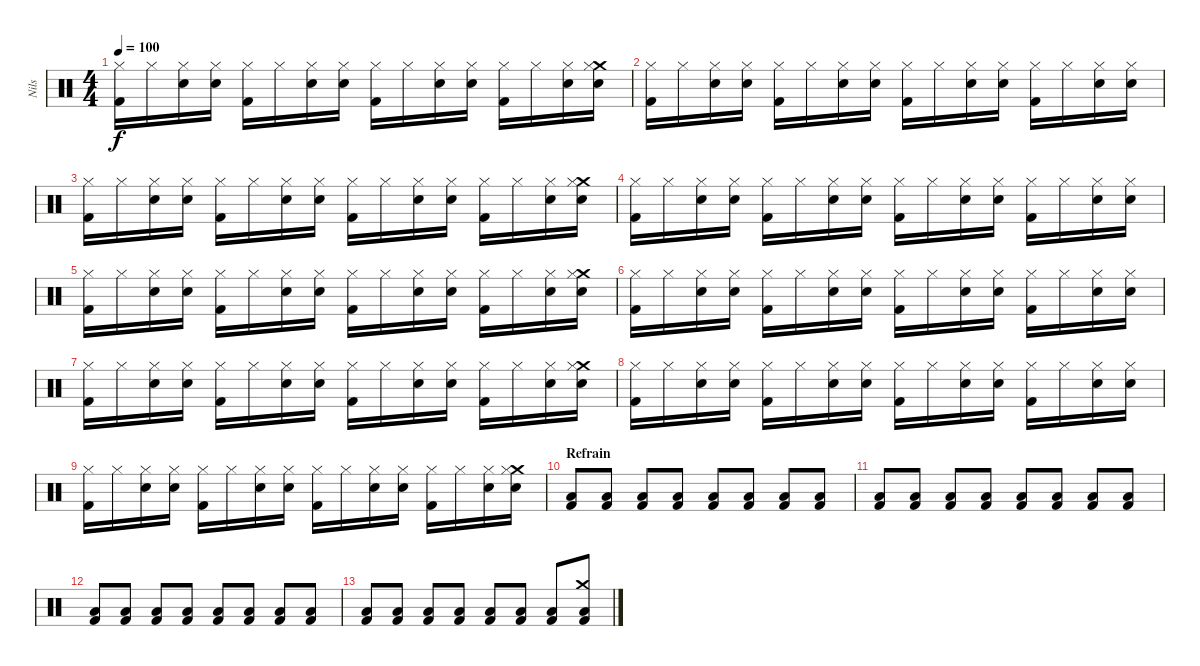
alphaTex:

\track ("Nils" "Nils") {instrument percussion}
\staff {score}
\articulation defaults
\ts (4 4)
\tempo 100
\clef neutral
\ks c
("Kick (hit) 2" "Hi-Hat (closed)").16{dy f} "Hi-Hat (closed)".16 ("Electric Snare (hit)" "Hi-Hat (closed)").16 ("Electric Snare (hit)" "Hi-Hat (closed)").16 ("Kick (hit) 2" "Hi-Hat (closed)").16 "Hi-Hat (closed)".16 ("Electric Snare (hit)" "Hi-Hat (closed)").16 ("Electric Snare (hit)" "Hi-Hat (closed)").16 ("Kick (hit) 2" "Hi-Hat (closed)").16 "Hi-Hat (closed)".16 ("Electric Snare (hit)" "Hi-Hat (closed)").16 ("Electric Snare (hit)" "Hi-Hat (closed)").16 ("Kick (hit) 2" "Hi-Hat (closed)").16 "Hi-Hat (closed)".16 ("Electric Snare (hit)" "Hi-Hat (closed)").16 ("Crash medium (hit)" "Electric Snare (hit)" "Hi-Hat (closed)").16 |
("Kick (hit) 2" "Hi-Hat (closed)").16 "Hi-Hat (closed)".16 ("Electric Snare (hit)" "Hi-Hat (closed)").16 ("Electric Snare (hit)" "Hi-Hat (closed)").16 ("Kick (hit) 2" "Hi-Hat (closed)").16 "Hi-Hat (closed)".16 ("Electric Snare (hit)" "Hi-Hat (closed)").16 ("Electric Snare (hit)" "Hi-Hat (closed)").16 ("Kick (hit) 2" "Hi-Hat (closed)").16 "Hi-Hat (closed)".16 ("Electric Snare (hit)" "Hi-Hat (closed)").16 ("Electric Snare (hit)" "Hi-Hat (closed)").16 ("Kick (hit) 2" "Hi-Hat (closed)").16 "Hi-Hat (closed)".16 ("Electric Snare (hit)" "Hi-Hat (closed)").16 ("Electric Snare (hit)" "Hi-Hat (closed)").16 |
("Kick (hit) 2" "Hi-Hat (closed)").16 "Hi-Hat (closed)".16 ("Electric Snare (hit)" "Hi-Hat (closed)").16 ("Electric Snare (hit)" "Hi-Hat (closed)").16 ("Kick (hit) 2" "Hi-Hat (closed)").16 "Hi-Hat (closed)".16 ("Electric Snare (hit)" "Hi-Hat (closed)").16 ("Electric Snare (hit)" "Hi-Hat (closed)").16 ("Kick (hit) 2" "Hi-Hat (closed)").16 "Hi-Hat (closed)".16 ("Electric Snare (hit)" "Hi-Hat (closed)").16 ("Electric Snare (hit)" "Hi-Hat (closed)").16 ("Kick (hit) 2" "Hi-Hat (closed)").16 "Hi-Hat (closed)".16 ("Electric Snare (hit)" "Hi-Hat (closed)").16 ("Crash medium (hit)" "Electric Snare (hit)" "Hi-Hat (closed)").16 |
("Kick (hit) 2" "Hi-Hat (closed)").16 "Hi-Hat (closed)".16 ("Electric Snare (hit)" "Hi-Hat (closed)").16 ("Electric Snare (hit)" "Hi-Hat (closed)").16 ("Kick (hit) 2" "Hi-Hat (closed)").16 "Hi-Hat (closed)".16 ("Electric Snare (hit)" "Hi-Hat (closed)").16 ("Electric Snare (hit)" "Hi-Hat (closed)").16 ("Kick (hit) 2" "Hi-Hat (closed)").16 "Hi-Hat (closed)".16 ("Electric Snare (hit)" "Hi-Hat (closed)").16 ("Electric Snare (hit)" "Hi-Hat (closed)").16 ("Kick (hit) 2" "Hi-Hat (closed)").16 "Hi-Hat (closed)".16 ("Electric Snare (hit)" "Hi-Hat (closed)").16 ("Electric Snare (hit)" "Hi-Hat (closed)").16 |
("Kick (hit) 2" "Hi-Hat (closed)").16 "Hi-Hat (closed)".16 ("Electric Snare (hit)" "Hi-Hat (closed)").16 ("Electric Snare (hit)" "Hi-Hat (closed)").16 ("Kick (hit) 2" "Hi-Hat (closed)").16 "Hi-Hat (closed)".16 ("Electric Snare (hit)" "Hi-Hat (closed)").16 ("Electric Snare (hit)" "Hi-Hat (closed)").16 ("Kick (hit) 2" "Hi-Hat (closed)").16 "Hi-Hat (closed)".16 ("Electric Snare (hit)" "Hi-Hat (closed)").16 ("Electric Snare (hit)" "Hi-Hat (closed)").16 ("Kick (hit) 2" "Hi-Hat (closed)").16 "Hi-Hat (closed)".16 ("Electric Snare (hit)" "Hi-Hat (closed)").16 ("Crash medium (hit)" "Electric Snare (hit)" "Hi-Hat (closed)").16 |
("Kick (hit) 2" "Hi-Hat (closed)").16 "Hi-Hat (closed)".16 ("Electric Snare (hit)" "Hi-Hat (closed)").16 ("Electric Snare (hit)" "Hi-Hat (closed)").16 ("Kick (hit) 2" "Hi-Hat (closed)").16 "Hi-Hat (closed)".16 ("Electric Snare (hit)" "Hi-Hat (closed)").16 ("Electric Snare (hit)" "Hi-Hat (closed)").16 ("Kick (hit) 2" "Hi-Hat (closed)").16 "Hi-Hat (closed)".16 ("Electric Snare (hit)" "Hi-Hat (closed)").16 ("Electric Snare (hit)" "Hi-Hat (closed)").16 ("Kick (hit) 2" "Hi-Hat (closed)").16 "Hi-Hat (closed)".16 ("Electric Snare (hit)" "Hi-Hat (closed)").16 ("Electric Snare (hit)" "Hi-Hat (closed)").16 |
("Kick (hit) 2" "Hi-Hat (closed)").16 "Hi-Hat (closed)".16 ("Electric Snare (hit)" "Hi-Hat (closed)").16 ("Electric Snare (hit)" "Hi-Hat (closed)").16 ("Kick (hit) 2" "Hi-Hat (closed)").16 "Hi-Hat (closed)".16 ("Electric Snare (hit)" "Hi-Hat (closed)").16 ("Electric Snare (hit)" "Hi-Hat (closed)").16 ("Kick (hit) 2" "Hi-Hat (closed)").16 "Hi-Hat (closed)".16 ("Electric Snare (hit)" "Hi-Hat (closed)").16 ("Electric Snare (hit)" "Hi-Hat (closed)").16 ("Kick (hit) 2" "Hi-Hat (closed)").16 "Hi-Hat (closed)".16 ("Electric Snare (hit)" "Hi-Hat (closed)").16 ("Crash medium (hit)" "Electric Snare (hit)" "Hi-Hat (closed)").16 |
("Kick (hit) 2" "Hi-Hat (closed)").16 "Hi-Hat (closed)".16 ("Electric Snare (hit)" "Hi-Hat (closed)").16 ("Electric Snare (hit)" "Hi-Hat (closed)").16 ("Kick (hit) 2" "Hi-Hat (closed)").16 "Hi-Hat (closed)".16 ("Electric Snare (hit)" "Hi-Hat (closed)").16 ("Electric Snare (hit)" "Hi-Hat (closed)").16 ("Kick (hit) 2" "Hi-Hat (closed)").16 "Hi-Hat (closed)".16 ("Electric Snare (hit)" "Hi-Hat (closed)").16 ("Electric Snare (hit)" "Hi-Hat (closed)").16 ("Kick (hit) 2" "Hi-Hat (closed)").16 "Hi-Hat (closed)".16 ("Electric Snare (hit)" "Hi-Hat (closed)").16 ("Electric Snare (hit)" "Hi-Hat (closed)").16 |
("Kick (hit) 2" "Hi-Hat (closed)").16 "Hi-Hat (closed)".16 ("Electric Snare (hit)" "Hi-Hat (closed)").16 ("Electric Snare (hit)" "Hi-Hat (closed)").16 ("Kick (hit) 2" "Hi-Hat (closed)").16 "Hi-Hat (closed)".16 ("Electric Snare (hit)" "Hi-Hat (closed)").16 ("Electric Snare (hit)" "Hi-Hat (closed)").16 ("Kick (hit) 2" "Hi-Hat (closed)").16 "Hi-Hat (closed)".16 ("Electric Snare (hit)" "Hi-Hat (closed)").16 ("Electric Snare (hit)" "Hi-Hat (closed)").16 ("Kick (hit) 2" "Hi-Hat (closed)").16 "Hi-Hat (closed)".16 ("Electric Snare (hit)" "Hi-Hat (closed)").16 ("Crash medium (hit)" "Electric Snare (hit)" "Hi-Hat (closed)").16 |
\section ("" "Refrain")
("Low Floor Tom (hit)" "Kick (hit) 2").8 ("Low Floor Tom (hit)" "Kick (hit) 2").8 ("Low Floor Tom (hit)" "Kick (hit) 2").8 ("Low Floor Tom (hit)" "Kick (hit) 2").8 ("Low Floor Tom (hit)" "Kick (hit) 2").8 ("Low Floor Tom (hit)" "Kick (hit) 2").8 ("Low Floor Tom (hit)" "Kick (hit) 2").8 ("Low Floor Tom (hit)" "Kick (hit) 2").8 |
("Low Floor Tom (hit)" "Kick (hit) 2").8 ("Low Floor Tom (hit)" "Kick (hit) 2").8 ("Low Floor Tom (hit)" "Kick (hit) 2").8 ("Low Floor Tom (hit)" "Kick (hit) 2").8 ("Low Floor Tom (hit)" "Kick (hit) 2").8 ("Low Floor Tom (hit)" "Kick (hit) 2").8 ("Low Floor Tom (hit)" "Kick (hit) 2").8 ("Low Floor Tom (hit)" "Kick (hit) 2").8 |
("Low Floor Tom (hit)" "Kick (hit) 2").8 ("Low Floor Tom (hit)" "Kick (hit) 2").8 ("Low Floor Tom (hit)" "Kick (hit) 2").8 ("Low Floor Tom (hit)" "Kick (hit) 2").8 ("Low Floor Tom (hit)" "Kick (hit) 2").8 ("Low Floor Tom (hit)" "Kick (hit) 2").8 ("Low Floor Tom (hit)" "Kick (hit) 2").8 ("Low Floor Tom (hit)" "Kick (hit) 2").8 |
("Low Floor Tom (hit)" "Kick (hit) 2").8 ("Low Floor Tom (hit)" "Kick (hit) 2").8 ("Low Floor Tom (hit)" "Kick (hit) 2").8 ("Low Floor Tom (hit)" "Kick (hit) 2").8 ("Low Floor Tom (hit)" "Kick (hit) 2").8 ("Low Floor Tom (hit)" "Kick (hit) 2").8 ("Low Floor Tom (hit)" "Kick (hit) 2").8 ("Crash medium (hit)" "Low Floor Tom (hit)" "Kick (hit) 2").8
